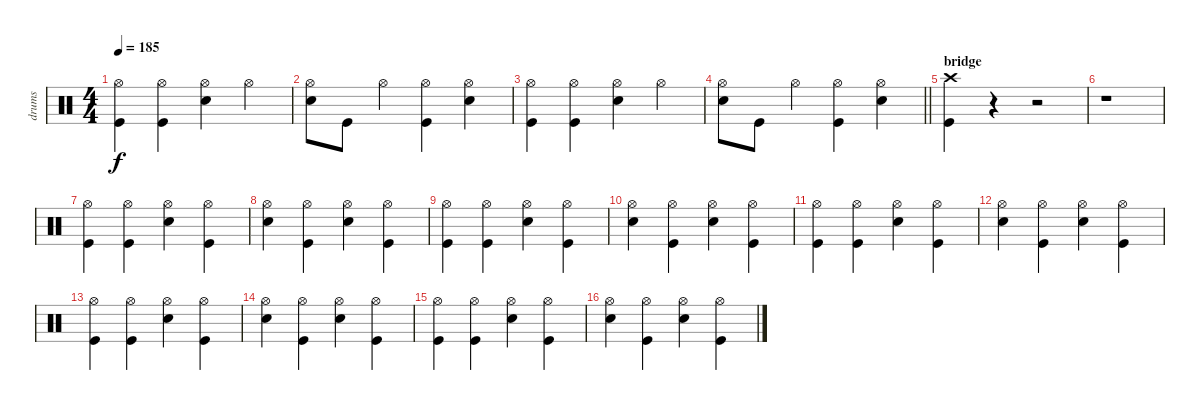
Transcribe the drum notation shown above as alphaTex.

\track ("drums" "drums") {instrument percussion}
\staff {score}
\articulation defaults
\ts (4 4)
\tempo 185
\clef neutral
\ks c
("Hi-Hat (open)" "Kick (hit)").4{dy f} ("Hi-Hat (open)" "Kick (hit)").4 ("Hi-Hat (open)" "Snare (hit) 2").4 "Hi-Hat (open)".4 |
("Hi-Hat (open)" "Snare (hit) 2").8 "Kick (hit)".8 "Hi-Hat (open)".4 ("Hi-Hat (open)" "Kick (hit)").4 ("Hi-Hat (open)" "Snare (hit) 2").4 |
("Hi-Hat (open)" "Kick (hit)").4 ("Hi-Hat (open)" "Kick (hit)").4 ("Hi-Hat (open)" "Snare (hit) 2").4 "Hi-Hat (open)".4 |
\barLineRight lightlight
("Hi-Hat (open)" "Snare (hit) 2").8 "Kick (hit)".8 "Hi-Hat (open)".4 ("Hi-Hat (open)" "Kick (hit)").4 ("Hi-Hat (open)" "Snare (hit) 2").4 |
\section ("" "bridge")
("Crash high (hit)" "Kick (hit)").4 r.4 r.2 |
r.1 |
("Hi-Hat (open)" "Kick (hit)").4 ("Hi-Hat (open)" "Kick (hit)").4 ("Hi-Hat (open)" "Snare (hit) 2").4 ("Hi-Hat (open)" "Kick (hit)").4 |
("Hi-Hat (open)" "Snare (hit) 2").4 ("Hi-Hat (open)" "Kick (hit)").4 ("Hi-Hat (open)" "Snare (hit) 2").4 ("Hi-Hat (open)" "Kick (hit)").4 |
("Hi-Hat (open)" "Kick (hit)").4 ("Hi-Hat (open)" "Kick (hit)").4 ("Hi-Hat (open)" "Snare (hit) 2").4 ("Hi-Hat (open)" "Kick (hit)").4 |
("Hi-Hat (open)" "Snare (hit) 2").4 ("Hi-Hat (open)" "Kick (hit)").4 ("Hi-Hat (open)" "Snare (hit) 2").4 ("Hi-Hat (open)" "Kick (hit)").4 |
("Hi-Hat (open)" "Kick (hit)").4 ("Hi-Hat (open)" "Kick (hit)").4 ("Hi-Hat (open)" "Snare (hit) 2").4 ("Hi-Hat (open)" "Kick (hit)").4 |
("Hi-Hat (open)" "Snare (hit) 2").4 ("Hi-Hat (open)" "Kick (hit)").4 ("Hi-Hat (open)" "Snare (hit) 2").4 ("Hi-Hat (open)" "Kick (hit)").4 |
("Hi-Hat (open)" "Kick (hit)").4 ("Hi-Hat (open)" "Kick (hit)").4 ("Hi-Hat (open)" "Snare (hit) 2").4 ("Hi-Hat (open)" "Kick (hit)").4 |
("Hi-Hat (open)" "Snare (hit) 2").4 ("Hi-Hat (open)" "Kick (hit)").4 ("Hi-Hat (open)" "Snare (hit) 2").4 ("Hi-Hat (open)" "Kick (hit)").4 |
("Hi-Hat (open)" "Kick (hit)").4 ("Hi-Hat (open)" "Kick (hit)").4 ("Hi-Hat (open)" "Snare (hit) 2").4 ("Hi-Hat (open)" "Kick (hit)").4 |
("Hi-Hat (open)" "Snare (hit) 2").4 ("Hi-Hat (open)" "Kick (hit)").4 ("Hi-Hat (open)" "Snare (hit) 2").4 ("Hi-Hat (open)" "Kick (hit)").4
